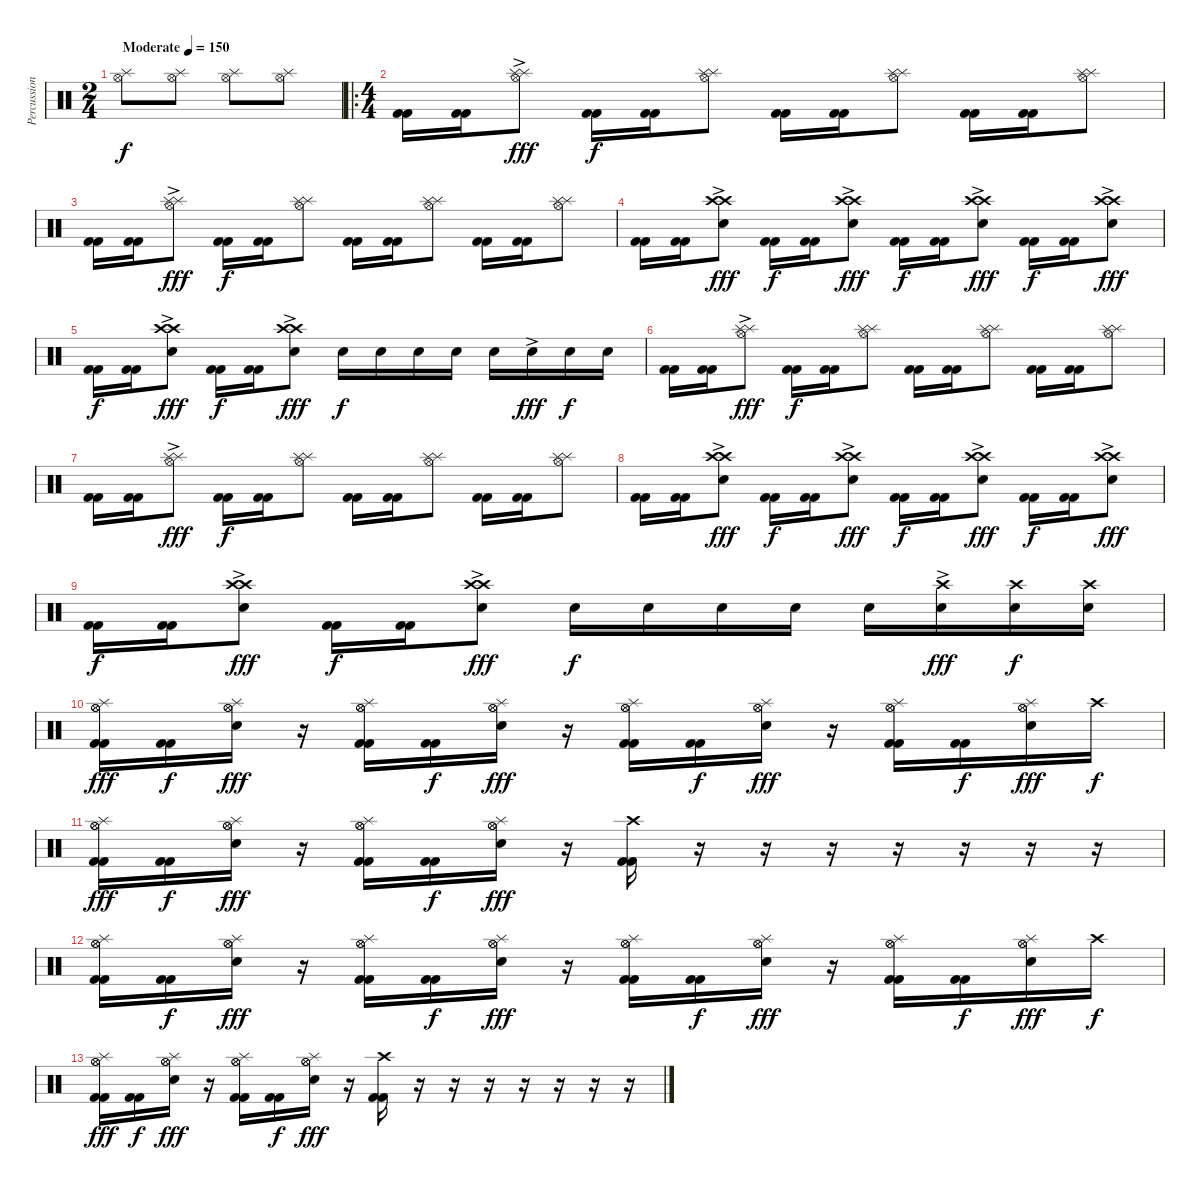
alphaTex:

\track ("Percussion" "Percussion") {instrument percussion}
\staff {score}
\articulation defaults
\ts (2 4)
\tempo (150 "Moderate")
\clef neutral
\ks c
("Splash (hit)" "Hi-Hat (open)").8{dy f} ("Splash (hit)" "Hi-Hat (open)").8 ("Splash (hit)" "Hi-Hat (open)").8 ("Splash (hit)" "Hi-Hat (open)").8 |
\ro
\ts (4 4)
("Kick (hit) 2" "Kick (hit) 2").16 ("Kick (hit) 2" "Kick (hit) 2").16 ("Splash (hit)"{ac} "Splash (hit)" "Hi-Hat (open)").8{dy fff} ("Kick (hit) 2" "Kick (hit) 2").16{dy f} ("Kick (hit) 2" "Kick (hit) 2").16 ("Splash (hit)" "Splash (hit)" "Hi-Hat (open)").8 ("Kick (hit) 2" "Kick (hit) 2").16 ("Kick (hit) 2" "Kick (hit) 2").16 ("Splash (hit)" "Splash (hit)" "Hi-Hat (open)").8 ("Kick (hit) 2" "Kick (hit) 2").16 ("Kick (hit) 2" "Kick (hit) 2").16 ("Splash (hit)" "Splash (hit)" "Hi-Hat (open)").8 |
("Kick (hit) 2" "Kick (hit) 2").16 ("Kick (hit) 2" "Kick (hit) 2").16 ("Splash (hit)"{ac} "Splash (hit)" "Hi-Hat (open)").8{dy fff} ("Kick (hit) 2" "Kick (hit) 2").16{dy f} ("Kick (hit) 2" "Kick (hit) 2").16 ("Splash (hit)" "Splash (hit)" "Hi-Hat (open)").8 ("Kick (hit) 2" "Kick (hit) 2").16 ("Kick (hit) 2" "Kick (hit) 2").16 ("Splash (hit)" "Splash (hit)" "Hi-Hat (open)").8 ("Kick (hit) 2" "Kick (hit) 2").16 ("Kick (hit) 2" "Kick (hit) 2").16 ("Splash (hit)" "Splash (hit)" "Hi-Hat (open)").8 |
("Kick (hit) 2" "Kick (hit) 2").16 ("Kick (hit) 2" "Kick (hit) 2").16 ("Crash high (hit)"{ac} "Crash high (hit)" "Snare (hit) 2").8{dy fff} ("Kick (hit) 2" "Kick (hit) 2").16{dy f} ("Kick (hit) 2" "Kick (hit) 2").16 ("Crash high (hit)" "Crash high (hit)" "Snare (hit) 2"{ac}).8{dy fff} ("Kick (hit) 2" "Kick (hit) 2").16{dy f} ("Kick (hit) 2" "Kick (hit) 2").16 ("Crash high (hit)" "Crash high (hit)" "Snare (hit) 2"{ac}).8{dy fff} ("Kick (hit) 2" "Kick (hit) 2").16{dy f} ("Kick (hit) 2" "Kick (hit) 2").16 ("Crash high (hit)" "Crash high (hit)" "Snare (hit) 2"{ac}).8{dy fff} |
("Kick (hit) 2" "Kick (hit) 2").16{dy f} ("Kick (hit) 2" "Kick (hit) 2").16 ("Crash high (hit)"{ac} "Crash high (hit)" "Snare (hit) 2").8{dy fff} ("Kick (hit) 2" "Kick (hit) 2").16{dy f} ("Kick (hit) 2" "Kick (hit) 2").16 ("Crash high (hit)" "Crash high (hit)" "Snare (hit) 2"{ac}).8{dy fff} "Snare (hit) 2".16{dy f} "Snare (hit) 2".16 "Snare (hit) 2".16 "Snare (hit) 2".16 "Snare (hit) 2".16 "Snare (hit) 2"{ac}.16{dy fff} "Snare (hit) 2".16{dy f} "Snare (hit) 2".16 |
("Kick (hit) 2" "Kick (hit) 2").16 ("Kick (hit) 2" "Kick (hit) 2").16 ("Splash (hit)"{ac} "Splash (hit)" "Hi-Hat (open)").8{dy fff} ("Kick (hit) 2" "Kick (hit) 2").16{dy f} ("Kick (hit) 2" "Kick (hit) 2").16 ("Splash (hit)" "Splash (hit)" "Hi-Hat (open)").8 ("Kick (hit) 2" "Kick (hit) 2").16 ("Kick (hit) 2" "Kick (hit) 2").16 ("Splash (hit)" "Splash (hit)" "Hi-Hat (open)").8 ("Kick (hit) 2" "Kick (hit) 2").16 ("Kick (hit) 2" "Kick (hit) 2").16 ("Splash (hit)" "Splash (hit)" "Hi-Hat (open)").8 |
("Kick (hit) 2" "Kick (hit) 2").16 ("Kick (hit) 2" "Kick (hit) 2").16 ("Splash (hit)"{ac} "Splash (hit)" "Hi-Hat (open)").8{dy fff} ("Kick (hit) 2" "Kick (hit) 2").16{dy f} ("Kick (hit) 2" "Kick (hit) 2").16 ("Splash (hit)" "Splash (hit)" "Hi-Hat (open)").8 ("Kick (hit) 2" "Kick (hit) 2").16 ("Kick (hit) 2" "Kick (hit) 2").16 ("Splash (hit)" "Splash (hit)" "Hi-Hat (open)").8 ("Kick (hit) 2" "Kick (hit) 2").16 ("Kick (hit) 2" "Kick (hit) 2").16 ("Splash (hit)" "Splash (hit)" "Hi-Hat (open)").8 |
("Kick (hit) 2" "Kick (hit) 2").16 ("Kick (hit) 2" "Kick (hit) 2").16 ("Crash high (hit)"{ac} "Crash high (hit)" "Snare (hit) 2").8{dy fff} ("Kick (hit) 2" "Kick (hit) 2").16{dy f} ("Kick (hit) 2" "Kick (hit) 2").16 ("Crash high (hit)" "Crash high (hit)" "Snare (hit) 2"{ac}).8{dy fff} ("Kick (hit) 2" "Kick (hit) 2").16{dy f} ("Kick (hit) 2" "Kick (hit) 2").16 ("Crash high (hit)" "Crash high (hit)" "Snare (hit) 2"{ac}).8{dy fff} ("Kick (hit) 2" "Kick (hit) 2").16{dy f} ("Kick (hit) 2" "Kick (hit) 2").16 ("Crash high (hit)" "Crash high (hit)" "Snare (hit) 2"{ac}).8{dy fff} |
("Kick (hit) 2" "Kick (hit) 2").16{dy f} ("Kick (hit) 2" "Kick (hit) 2").16 ("Crash high (hit)"{ac} "Crash high (hit)" "Snare (hit) 2").8{dy fff} ("Kick (hit) 2" "Kick (hit) 2").16{dy f} ("Kick (hit) 2" "Kick (hit) 2").16 ("Crash high (hit)" "Crash high (hit)" "Snare (hit) 2"{ac}).8{dy fff} "Snare (hit) 2".16{dy f} "Snare (hit) 2".16 "Snare (hit) 2".16 "Snare (hit) 2".16 "Snare (hit) 2".16 ("Crash high (hit)" "Snare (hit) 2"{ac}).16{dy fff} ("Crash high (hit)" "Snare (hit) 2").16{dy f} ("Crash high (hit)" "Snare (hit) 2").16 |
("Hi-Hat (open)" "Hi-Hat (open)" "Splash (hit)" "Kick (hit) 2" "Kick (hit) 2").16{dy fff} ("Kick (hit) 2" "Kick (hit) 2").16{dy f} ("Hi-Hat (open)" "Hi-Hat (open)" "Splash (hit)" "Snare (hit) 2").16{dy fff} r.16 ("Hi-Hat (open)" "Hi-Hat (open)" "Splash (hit)" "Kick (hit) 2" "Kick (hit) 2").16 ("Kick (hit) 2" "Kick (hit) 2").16{dy f} ("Hi-Hat (open)" "Hi-Hat (open)" "Splash (hit)" "Snare (hit) 2").16{dy fff} r.16 ("Hi-Hat (open)" "Hi-Hat (open)" "Splash (hit)" "Kick (hit) 2" "Kick (hit) 2").16 ("Kick (hit) 2" "Kick (hit) 2").16{dy f} ("Hi-Hat (open)" "Hi-Hat (open)" "Splash (hit)" "Snare (hit) 2").16{dy fff} r.16 ("Hi-Hat (open)" "Hi-Hat (open)" "Splash (hit)" "Kick (hit) 2" "Kick (hit) 2").16 ("Kick (hit) 2" "Kick (hit) 2").16{dy f} ("Hi-Hat (open)" "Hi-Hat (open)" "Splash (hit)" "Snare (hit) 2").16{dy fff} "Crash high (hit)".16{dy f} |
("Hi-Hat (open)" "Hi-Hat (open)" "Splash (hit)" "Kick (hit) 2" "Kick (hit) 2").16{dy fff} ("Kick (hit) 2" "Kick (hit) 2").16{dy f} ("Hi-Hat (open)" "Hi-Hat (open)" "Splash (hit)" "Snare (hit) 2").16{dy fff} r.16 ("Hi-Hat (open)" "Hi-Hat (open)" "Splash (hit)" "Kick (hit) 2" "Kick (hit) 2").16 ("Kick (hit) 2" "Kick (hit) 2").16{dy f} ("Hi-Hat (open)" "Hi-Hat (open)" "Splash (hit)" "Snare (hit) 2").16{dy fff} r.16 ("Crash high (hit)" "Kick (hit) 2" "Kick (hit) 2").16 r.16 r.16 r.16 r.16 r.16 r.16 r.16 |
("Hi-Hat (open)" "Hi-Hat (open)" "Splash (hit)" "Kick (hit) 2" "Kick (hit) 2").16 ("Kick (hit) 2" "Kick (hit) 2").16{dy f} ("Hi-Hat (open)" "Hi-Hat (open)" "Splash (hit)" "Snare (hit) 2").16{dy fff} r.16 ("Hi-Hat (open)" "Hi-Hat (open)" "Splash (hit)" "Kick (hit) 2" "Kick (hit) 2").16 ("Kick (hit) 2" "Kick (hit) 2").16{dy f} ("Hi-Hat (open)" "Hi-Hat (open)" "Splash (hit)" "Snare (hit) 2").16{dy fff} r.16 ("Hi-Hat (open)" "Hi-Hat (open)" "Splash (hit)" "Kick (hit) 2" "Kick (hit) 2").16 ("Kick (hit) 2" "Kick (hit) 2").16{dy f} ("Hi-Hat (open)" "Hi-Hat (open)" "Splash (hit)" "Snare (hit) 2").16{dy fff} r.16 ("Hi-Hat (open)" "Hi-Hat (open)" "Splash (hit)" "Kick (hit) 2" "Kick (hit) 2").16 ("Kick (hit) 2" "Kick (hit) 2").16{dy f} ("Hi-Hat (open)" "Hi-Hat (open)" "Splash (hit)" "Snare (hit) 2").16{dy fff} "Crash high (hit)".16{dy f} |
("Hi-Hat (open)" "Hi-Hat (open)" "Splash (hit)" "Kick (hit) 2" "Kick (hit) 2").16{dy fff} ("Kick (hit) 2" "Kick (hit) 2").16{dy f} ("Hi-Hat (open)" "Hi-Hat (open)" "Splash (hit)" "Snare (hit) 2").16{dy fff} r.16 ("Hi-Hat (open)" "Hi-Hat (open)" "Splash (hit)" "Kick (hit) 2" "Kick (hit) 2").16 ("Kick (hit) 2" "Kick (hit) 2").16{dy f} ("Hi-Hat (open)" "Hi-Hat (open)" "Splash (hit)" "Snare (hit) 2").16{dy fff} r.16 ("Crash high (hit)" "Kick (hit) 2" "Kick (hit) 2").16 r.16 r.16 r.16 r.16 r.16 r.16 r.16
